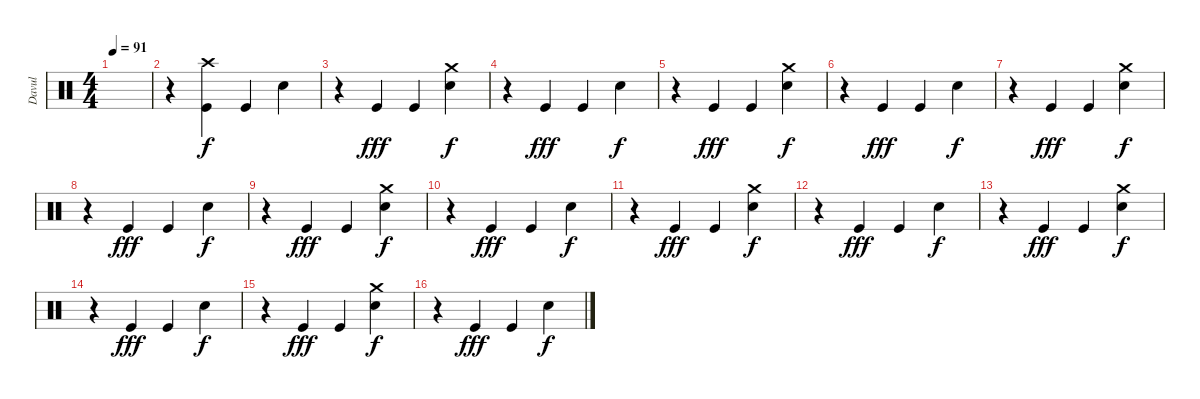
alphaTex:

\track ("Davul" "Davul") {instrument percussion}
\staff {score}
\articulation defaults
\ts (4 4)
\tempo 91
\clef neutral
\ks c
|
r.4 ("Crash high (hit)" "Kick (hit)").4 "Kick (hit)".4 "Snare (hit) 2".4{dy f} |
r.4 "Kick (hit)".4{dy fff} "Kick (hit)".4 ("Crash medium (hit)" "Snare (hit) 2").4{dy f} |
r.4 "Kick (hit)".4{dy fff} "Kick (hit)".4 "Snare (hit) 2".4{dy f} |
r.4 "Kick (hit)".4{dy fff} "Kick (hit)".4 ("Crash medium (hit)" "Snare (hit) 2").4{dy f} |
r.4 "Kick (hit)".4{dy fff} "Kick (hit)".4 "Snare (hit) 2".4{dy f} |
r.4 "Kick (hit)".4{dy fff} "Kick (hit)".4 ("Crash medium (hit)" "Snare (hit) 2").4{dy f} |
r.4 "Kick (hit)".4{dy fff} "Kick (hit)".4 "Snare (hit) 2".4{dy f} |
r.4 "Kick (hit)".4{dy fff} "Kick (hit)".4 ("Crash medium (hit)" "Snare (hit) 2").4{dy f} |
r.4 "Kick (hit)".4{dy fff} "Kick (hit)".4 "Snare (hit) 2".4{dy f} |
r.4 "Kick (hit)".4{dy fff} "Kick (hit)".4 ("Crash medium (hit)" "Snare (hit) 2").4{dy f} |
r.4 "Kick (hit)".4{dy fff} "Kick (hit)".4 "Snare (hit) 2".4{dy f} |
r.4 "Kick (hit)".4{dy fff} "Kick (hit)".4 ("Crash medium (hit)" "Snare (hit) 2").4{dy f} |
r.4 "Kick (hit)".4{dy fff} "Kick (hit)".4 "Snare (hit) 2".4{dy f} |
r.4 "Kick (hit)".4{dy fff} "Kick (hit)".4 ("Crash medium (hit)" "Snare (hit) 2").4{dy f} |
r.4 "Kick (hit)".4{dy fff} "Kick (hit)".4 "Snare (hit) 2".4{dy f}
